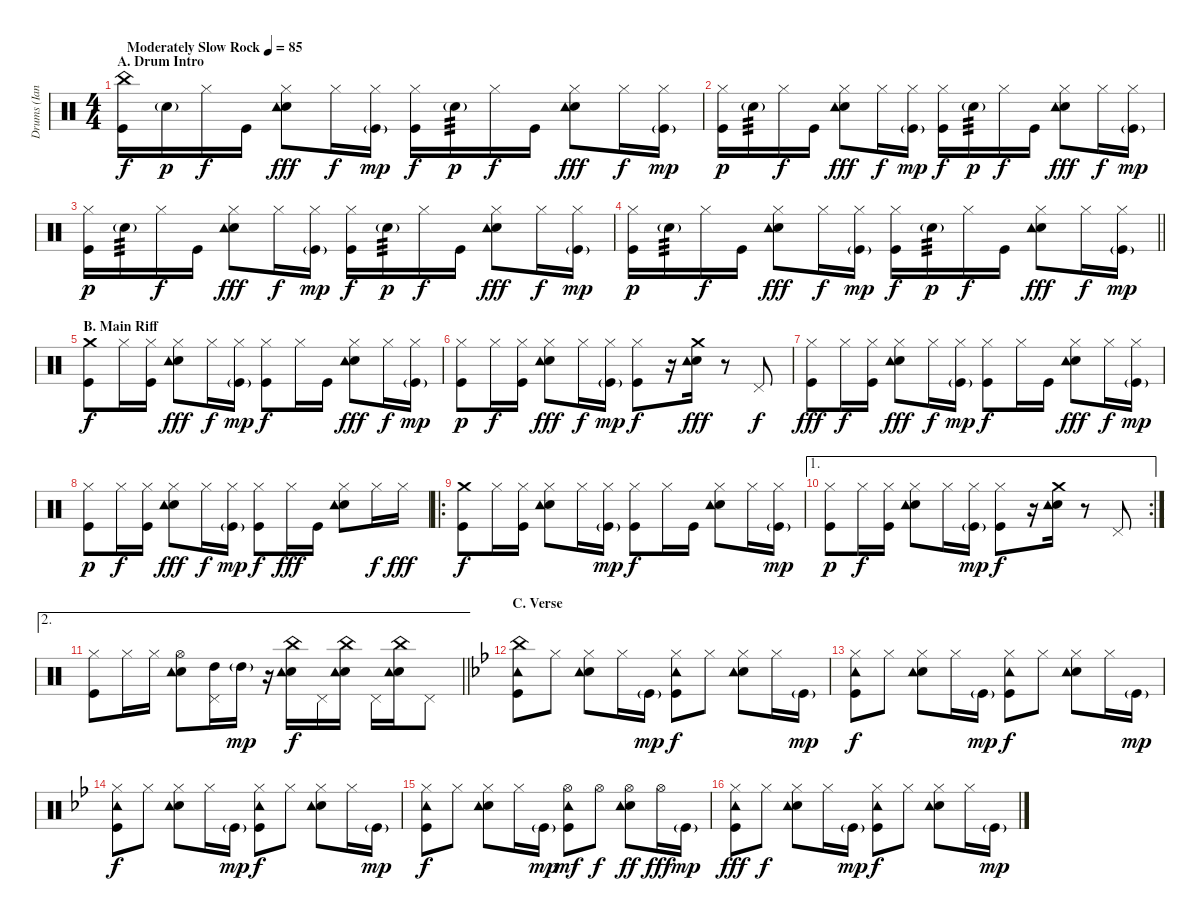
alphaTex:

\track ("Drums (Ian Paice)" "Drums (Ian") {instrument percussion}
\staff {score}
\articulation defaults
\ts (4 4)
\section ("" "A. Drum Intro")
\tempo (85 "Moderately Slow Rock")
\clef neutral
\ks aminor
("China (hit)" "Kick (hit)").16{dy f} "Electric Snare (hit)"{g}.16{dy p} "Hi-Hat (closed)".16{dy f} "Kick (hit)".16 ("Hi-Hat (closed)" "Electric Snare (hit)" "Tambourine (hit)").8{dy fff} "Hi-Hat (closed)".16{dy f} ("Hi-Hat (closed)" "Kick (hit)"{g}).16{dy mp} ("Hi-Hat (closed)" "Kick (hit)").16{dy f} "Electric Snare (hit)"{g}.16{tp 3 dy p} "Hi-Hat (closed)".16{dy f} "Kick (hit)".16 ("Hi-Hat (closed)" "Electric Snare (hit)" "Tambourine (hit)").8{dy fff} "Hi-Hat (closed)".16{dy f} ("Hi-Hat (closed)" "Kick (hit)"{g}).16{dy mp} |
("Hi-Hat (closed)" "Kick (hit)").16{dy p} "Electric Snare (hit)"{g}.16{tp 3} "Hi-Hat (closed)".16{dy f} "Kick (hit)".16 ("Hi-Hat (closed)" "Electric Snare (hit)" "Tambourine (hit)").8{dy fff} "Hi-Hat (closed)".16{dy f} ("Hi-Hat (closed)" "Kick (hit)"{g}).16{dy mp} ("Hi-Hat (closed)" "Kick (hit)").16{dy f} "Electric Snare (hit)"{g}.16{tp 3 dy p} "Hi-Hat (closed)".16{dy f} "Kick (hit)".16 ("Hi-Hat (closed)" "Electric Snare (hit)" "Tambourine (hit)").8{dy fff} "Hi-Hat (closed)".16{dy f} ("Hi-Hat (closed)" "Kick (hit)"{g}).16{dy mp} |
("Hi-Hat (closed)" "Kick (hit)").16{dy p} "Electric Snare (hit)"{g}.16{tp 3} "Hi-Hat (closed)".16{dy f} "Kick (hit)".16 ("Hi-Hat (closed)" "Electric Snare (hit)" "Tambourine (hit)").8{dy fff} "Hi-Hat (closed)".16{dy f} ("Hi-Hat (closed)" "Kick (hit)"{g}).16{dy mp} ("Hi-Hat (closed)" "Kick (hit)").16{dy f} "Electric Snare (hit)"{g}.16{tp 3 dy p} "Hi-Hat (closed)".16{dy f} "Kick (hit)".16 ("Hi-Hat (closed)" "Electric Snare (hit)" "Tambourine (hit)").8{dy fff} "Hi-Hat (closed)".16{dy f} ("Hi-Hat (closed)" "Kick (hit)"{g}).16{dy mp} |
\barLineRight lightlight
("Hi-Hat (closed)" "Kick (hit)").16{dy p} "Electric Snare (hit)"{g}.16{tp 3} "Hi-Hat (closed)".16{dy f} "Kick (hit)".16 ("Hi-Hat (closed)" "Electric Snare (hit)" "Tambourine (hit)").8{dy fff} "Hi-Hat (closed)".16{dy f} ("Hi-Hat (closed)" "Kick (hit)"{g}).16{dy mp} ("Hi-Hat (closed)" "Kick (hit)").16{dy f} "Electric Snare (hit)"{g}.16{tp 3 dy p} "Hi-Hat (closed)".16{dy f} "Kick (hit)".16 ("Hi-Hat (closed)" "Electric Snare (hit)" "Tambourine (hit)").8{dy fff} "Hi-Hat (closed)".16{dy f} ("Hi-Hat (closed)" "Kick (hit)"{g}).16{dy mp} |
\section ("" "B. Main Riff")
("Crash medium (hit)" "Kick (hit)").8{dy f} "Hi-Hat (closed)".16 ("Hi-Hat (closed)" "Kick (hit)").16 ("Hi-Hat (closed)" "Electric Snare (hit)" "Tambourine (hit)").8{dy fff} "Hi-Hat (closed)".16{dy f} ("Hi-Hat (closed)" "Kick (hit)"{g}).16{dy mp} ("Hi-Hat (closed)" "Kick (hit)").8{dy f} "Hi-Hat (closed)".16 "Kick (hit)".16 ("Hi-Hat (closed)" "Electric Snare (hit)" "Tambourine (hit)").8{dy fff} "Hi-Hat (closed)".16{dy f} ("Hi-Hat (closed)" "Kick (hit)"{g}).16{dy mp} |
("Hi-Hat (closed)" "Kick (hit)").8{dy p} "Hi-Hat (closed)".16{dy f} ("Hi-Hat (closed)" "Kick (hit)").16 ("Hi-Hat (closed)" "Electric Snare (hit)" "Tambourine (hit)").8{dy fff} "Hi-Hat (closed)".16{dy f} ("Hi-Hat (closed)" "Kick (hit)"{g}).16{dy mp} ("Hi-Hat (closed)" "Kick (hit)").8{dy f} r.16 ("Crash medium (hit)" "Electric Snare (hit)" "Tambourine (hit)").16{dy fff} r.8 "Pedal Hi-Hat (hit)".8{dy f} |
("Hi-Hat (closed)" "Kick (hit)").8{dy fff} "Hi-Hat (closed)".16{dy f} ("Hi-Hat (closed)" "Kick (hit)").16 ("Hi-Hat (closed)" "Electric Snare (hit)" "Tambourine (hit)").8{dy fff} "Hi-Hat (closed)".16{dy f} ("Hi-Hat (closed)" "Kick (hit)"{g}).16{dy mp} ("Hi-Hat (closed)" "Kick (hit)").8{dy f} "Hi-Hat (closed)".16 "Kick (hit)".16 ("Hi-Hat (closed)" "Electric Snare (hit)" "Tambourine (hit)").8{dy fff} "Hi-Hat (closed)".16{dy f} ("Hi-Hat (closed)" "Kick (hit)"{g}).16{dy mp} |
("Hi-Hat (closed)" "Kick (hit)").8{dy p} "Hi-Hat (closed)".16{dy f} ("Hi-Hat (closed)" "Kick (hit)").16 ("Hi-Hat (closed)" "Electric Snare (hit)" "Tambourine (hit)").8{dy fff} "Hi-Hat (closed)".16{dy f} ("Hi-Hat (closed)" "Kick (hit)"{g}).16{dy mp} ("Hi-Hat (closed)" "Kick (hit)").8{dy f} "Hi-Hat (closed)".16{dy fff} "Kick (hit)".16 ("Hi-Hat (closed)" "Electric Snare (hit)" "Tambourine (hit)").8 "Hi-Hat (closed)".16{dy f} "Hi-Hat (closed)".16{dy fff} |
\ro
("Crash medium (hit)" "Kick (hit)").8{dy f} "Hi-Hat (closed)".16 ("Hi-Hat (closed)" "Kick (hit)").16 ("Hi-Hat (closed)" "Electric Snare (hit)" "Tambourine (hit)").8 "Hi-Hat (closed)".16 ("Hi-Hat (closed)" "Kick (hit)"{g}).16{dy mp} ("Hi-Hat (closed)" "Kick (hit)").8{dy f} "Hi-Hat (closed)".16 "Kick (hit)".16 ("Hi-Hat (closed)" "Electric Snare (hit)" "Tambourine (hit)").8 "Hi-Hat (closed)".16 ("Hi-Hat (closed)" "Kick (hit)"{g}).16{dy mp} |
\ae 1
\rc 2
("Hi-Hat (closed)" "Kick (hit)").8{dy p} "Hi-Hat (closed)".16{dy f} ("Hi-Hat (closed)" "Kick (hit)").16 ("Hi-Hat (closed)" "Electric Snare (hit)" "Tambourine (hit)").8 "Hi-Hat (closed)".16 ("Hi-Hat (closed)" "Kick (hit)"{g}).16{dy mp} ("Hi-Hat (closed)" "Kick (hit)").8{dy f} r.16 ("Crash medium (hit)" "Electric Snare (hit)" "Tambourine (hit)").16 r.8 "Pedal Hi-Hat (hit)".8 |
\ae 2
\barLineRight lightlight
("Hi-Hat (closed)" "Kick (hit)").8 "Hi-Hat (closed)".16 "Hi-Hat (closed)".16 ("Hi-Hat (open)" "Electric Snare (hit)" "Tambourine (hit)").8 ("Pedal Hi-Hat (hit)" "High Tom (hit)").16 "High Tom (hit)"{g}.16{dy mp} r.16 ("China (hit)" "Electric Snare (hit)" "Tambourine (hit)").16{dy f} "Pedal Hi-Hat (hit)".16 ("China (hit)" "Electric Snare (hit)" "Tambourine (hit)").16 "Pedal Hi-Hat (hit)".16 ("China (hit)" "Electric Snare (hit)" "Tambourine (hit)").16 "Pedal Hi-Hat (hit)".8 |
\section ("" "C. Verse ")
\ks gminor
("China (hit)" "Tambourine (hit)" "Kick (hit)").8 "Hi-Hat (closed)".8 ("Hi-Hat (closed)" "Electric Snare (hit)" "Tambourine (hit)").8 "Hi-Hat (closed)".16 "Kick (hit)"{g}.16{dy mp} ("Hi-Hat (closed)" "Tambourine (hit)" "Kick (hit)").8{dy f} "Hi-Hat (closed)".8 ("Hi-Hat (closed)" "Electric Snare (hit)" "Tambourine (hit)").8 "Hi-Hat (closed)".16 "Kick (hit)"{g}.16{dy mp} |
("Hi-Hat (closed)" "Tambourine (hit)" "Kick (hit)").8{dy f} "Hi-Hat (closed)".8 ("Hi-Hat (closed)" "Electric Snare (hit)" "Tambourine (hit)").8 "Hi-Hat (closed)".16 "Kick (hit)"{g}.16{dy mp} ("Hi-Hat (closed)" "Tambourine (hit)" "Kick (hit)").8{dy f} "Hi-Hat (closed)".8 ("Hi-Hat (closed)" "Electric Snare (hit)" "Tambourine (hit)").8 "Hi-Hat (closed)".16 "Kick (hit)"{g}.16{dy mp} |
("Hi-Hat (closed)" "Tambourine (hit)" "Kick (hit)").8{dy f} "Hi-Hat (closed)".8 ("Hi-Hat (closed)" "Electric Snare (hit)" "Tambourine (hit)").8 "Hi-Hat (closed)".16 "Kick (hit)"{g}.16{dy mp} ("Hi-Hat (closed)" "Tambourine (hit)" "Kick (hit)").8{dy f} "Hi-Hat (closed)".8 ("Hi-Hat (closed)" "Electric Snare (hit)" "Tambourine (hit)").8 "Hi-Hat (closed)".16 "Kick (hit)"{g}.16{dy mp} |
("Hi-Hat (closed)" "Tambourine (hit)" "Kick (hit)").8{dy f} "Hi-Hat (closed)".8 ("Hi-Hat (closed)" "Electric Snare (hit)" "Tambourine (hit)").8 "Hi-Hat (closed)".16 "Kick (hit)"{g}.16{dy mp} ("Hi-Hat (open)" "Tambourine (hit)" "Kick (hit)").8{dy mf} "Hi-Hat (open)".8{dy f} ("Hi-Hat (open)" "Electric Snare (hit)" "Tambourine (hit)").8{dy ff} "Hi-Hat (open)".16{dy fff} "Kick (hit)"{g}.16{dy mp} |
("Hi-Hat (closed)" "Tambourine (hit)" "Kick (hit)").8{dy fff} "Hi-Hat (closed)".8{dy f} ("Hi-Hat (closed)" "Electric Snare (hit)" "Tambourine (hit)").8 "Hi-Hat (closed)".16 "Kick (hit)"{g}.16{dy mp} ("Hi-Hat (closed)" "Tambourine (hit)" "Kick (hit)").8{dy f} "Hi-Hat (closed)".8 ("Hi-Hat (closed)" "Electric Snare (hit)" "Tambourine (hit)").8 "Hi-Hat (closed)".16 "Kick (hit)"{g}.16{dy mp}
